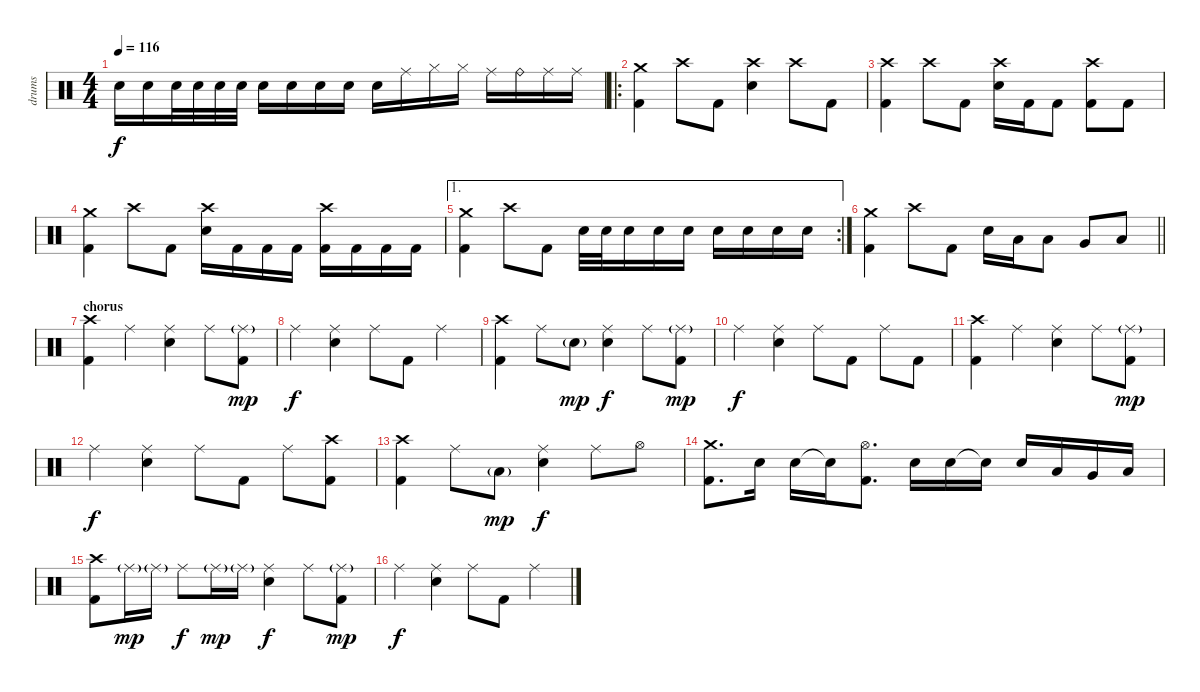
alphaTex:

\track ("drums" "drums") {instrument percussion}
\staff {score}
\articulation defaults
\ts (4 4)
\tempo 116
\clef neutral
\ks c "Snare (hit) 2".16{dy f} "Snare (hit) 2".16 "Snare (hit) 2".32 "Snare (hit) 2".32 "Snare (hit) 2".32 "Snare (hit) 2".32 "Snare (hit) 2".16 "Snare (hit) 2".16 "Snare (hit) 2".16 "Snare (hit) 2".16 "Snare (hit) 2".16 "Ride (middle)".16 "Hi-Hat (closed)".16 "Hi-Hat (closed)".16 "Ride (middle)".16 "Ride (bell)".16 "Ride (middle)".16 "Ride (middle)".16
|
\ro
("Crash medium (hit)" "Kick (hit) 2").4 "Crash high (hit)".8 "Kick (hit) 2".8 ("Crash high (hit)" "Snare (hit) 2").4 "Crash high (hit)".8 "Kick (hit) 2".8 |
("Crash high (hit)" "Kick (hit) 2").4 "Crash high (hit)".8 "Kick (hit) 2".8 ("Crash high (hit)" "Snare (hit) 2").16 "Kick (hit) 2".16 "Kick (hit) 2".8 ("Crash high (hit)" "Kick (hit) 2").8 "Kick (hit) 2".8 |
("Crash medium (hit)" "Kick (hit) 2").4 "Crash high (hit)".8 "Kick (hit) 2".8 ("Crash high (hit)" "Snare (hit) 2").16 "Kick (hit) 2".16 "Kick (hit) 2".16 "Kick (hit) 2".16 ("Crash high (hit)" "Kick (hit) 2").16 "Kick (hit) 2".16 "Kick (hit) 2".16 "Kick (hit) 2".16 |
\ae 1
\rc 2
("Crash medium (hit)" "Kick (hit) 2").4 "Crash high (hit)".8 "Kick (hit) 2".8 "Snare (hit) 2".32 "Snare (hit) 2".32 "Snare (hit) 2".16 "Snare (hit) 2".16 "Snare (hit) 2".16 "Snare (hit) 2".16 "Snare (hit) 2".16 "Snare (hit) 2".16 "Snare (hit) 2".16 |
\barLineRight lightlight
("Crash medium (hit)" "Kick (hit) 2").4 "Crash high (hit)".8 "Kick (hit) 2".8 "Snare (hit) 2".16 "Low Tom (hit)".16 "Low Tom (hit)".8 "Very Low Tom (hit)".8 "Low Floor Tom (hit)".8 |
\section ("" "chorus")
("Crash high (hit)" "Kick (hit) 2").4 "Ride (middle)".4 ("Ride (middle)" "Snare (hit) 2").4 "Ride (middle)".8 ("Ride (middle)"{g} "Kick (hit) 2").8{dy mp} |
"Ride (middle)".4{dy f} ("Ride (middle)" "Snare (hit) 2").4 "Ride (middle)".8 "Kick (hit) 2".8 "Ride (middle)".4 |
("Crash high (hit)" "Kick (hit) 2").4 "Ride (middle)".8 "Snare (hit) 2"{g}.8{dy mp} ("Ride (middle)" "Snare (hit) 2").4{dy f} "Ride (middle)".8 ("Ride (middle)"{g} "Kick (hit) 2").8{dy mp} |
"Ride (middle)".4{dy f} ("Ride (middle)" "Snare (hit) 2").4 "Ride (middle)".8 "Kick (hit) 2".8 "Ride (middle)".8 "Kick (hit) 2".8 |
("Crash high (hit)" "Kick (hit) 2").4 "Ride (middle)".4 ("Ride (middle)" "Snare (hit) 2").4 "Ride (middle)".8 ("Ride (middle)"{g} "Kick (hit) 2").8{dy mp} |
"Ride (middle)".4{dy f} ("Ride (middle)" "Snare (hit) 2").4 "Ride (middle)".8 "Kick (hit) 2".8 "Ride (middle)".8 ("Crash high (hit)" "Kick (hit) 2").8 |
("Crash high (hit)" "Kick (hit) 2").4 "Ride (middle)".8 "Low Tom (hit)"{g}.8{dy mp} ("Ride (middle)" "Snare (hit) 2").4{dy f} "Ride (middle)".8 "Hi-Hat (open)".8 |
("Crash medium (hit)" "Kick (hit) 2").8{d} "Snare (hit) 2".16 "Snare (hit) 2".16 "Snare (hit)"{t}.16 ("Hi-Hat (open)" "Kick (hit) 2").8{d} "Snare (hit) 2".16 "Snare (hit) 2".16 "Snare (hit)"{t}.16 "Snare (hit) 2".16 "Low Tom (hit)".16 "Very Low Tom (hit)".16 "Low Floor Tom (hit)".16 |
("Crash high (hit)" "Kick (hit) 2").8 "Ride (middle)"{g}.16{dy mp} "Ride (middle)"{g}.16 "Ride (middle)".8{dy f} "Ride (middle)"{g}.16{dy mp} "Ride (middle)"{g}.16 ("Ride (middle)" "Snare (hit) 2").4{dy f} "Ride (middle)".8 ("Ride (middle)"{g} "Kick (hit) 2").8{dy mp} |
"Ride (middle)".4{dy f} ("Ride (middle)" "Snare (hit) 2").4 "Ride (middle)".8 "Kick (hit) 2".8 "Ride (middle)".4
